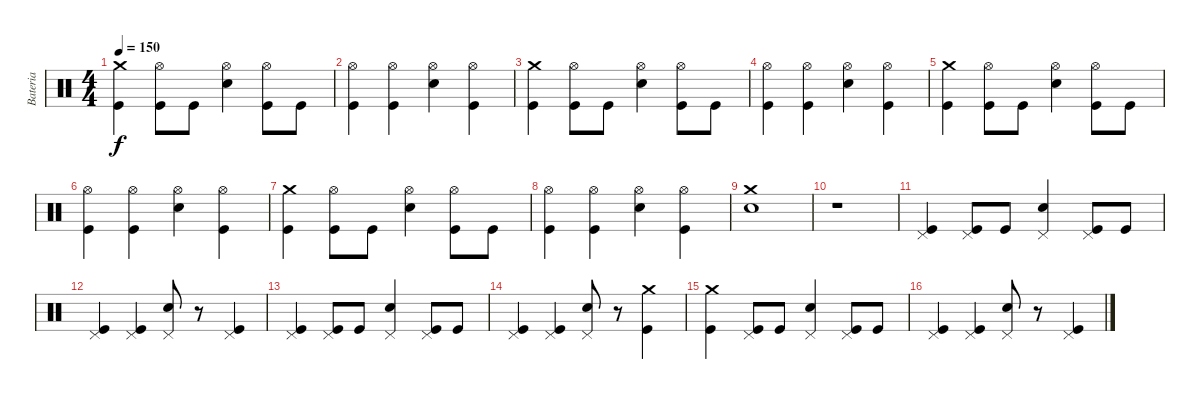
\track ("Bateria" "Bateria") {instrument percussion}
\staff {score}
\articulation defaults
\ts (4 4)
\tempo 150
\clef neutral
\ks c
("Crash medium (hit)" "Kick (hit)").4{dy f} ("Hi-Hat (open)" "Kick (hit)").8 "Kick (hit)".8 ("Hi-Hat (open)" "Snare (hit) 2").4 ("Hi-Hat (open)" "Kick (hit)").8 "Kick (hit)".8 |
("Hi-Hat (open)" "Kick (hit)").4 ("Hi-Hat (open)" "Kick (hit)").4 ("Hi-Hat (open)" "Snare (hit) 2").4 ("Hi-Hat (open)" "Kick (hit)").4 |
("Crash medium (hit)" "Kick (hit)").4 ("Hi-Hat (open)" "Kick (hit)").8 "Kick (hit)".8 ("Hi-Hat (open)" "Snare (hit) 2").4 ("Hi-Hat (open)" "Kick (hit)").8 "Kick (hit)".8 |
("Hi-Hat (open)" "Kick (hit)").4 ("Hi-Hat (open)" "Kick (hit)").4 ("Hi-Hat (open)" "Snare (hit) 2").4 ("Hi-Hat (open)" "Kick (hit)").4 |
("Crash medium (hit)" "Kick (hit)").4 ("Hi-Hat (open)" "Kick (hit)").8 "Kick (hit)".8 ("Hi-Hat (open)" "Snare (hit) 2").4 ("Hi-Hat (open)" "Kick (hit)").8 "Kick (hit)".8 |
("Hi-Hat (open)" "Kick (hit)").4 ("Hi-Hat (open)" "Kick (hit)").4 ("Hi-Hat (open)" "Snare (hit) 2").4 ("Hi-Hat (open)" "Kick (hit)").4 |
("Crash medium (hit)" "Kick (hit)").4 ("Hi-Hat (open)" "Kick (hit)").8 "Kick (hit)".8 ("Hi-Hat (open)" "Snare (hit) 2").4 ("Hi-Hat (open)" "Kick (hit)").8 "Kick (hit)".8 |
("Hi-Hat (open)" "Kick (hit)").4 ("Hi-Hat (open)" "Kick (hit)").4 ("Hi-Hat (open)" "Snare (hit) 2").4 ("Hi-Hat (open)" "Kick (hit)").4 |
("Crash medium (hit)" "Snare (hit) 2").1 |
r.1 |
("Pedal Hi-Hat (hit)" "Kick (hit)").4 ("Pedal Hi-Hat (hit)" "Kick (hit)").8 "Kick (hit)".8 ("Pedal Hi-Hat (hit)" "Snare (hit) 2").4 ("Pedal Hi-Hat (hit)" "Kick (hit)").8 "Kick (hit)".8 |
("Pedal Hi-Hat (hit)" "Kick (hit)").4 ("Pedal Hi-Hat (hit)" "Kick (hit)").4 ("Pedal Hi-Hat (hit)" "Snare (hit) 2").8 r.8 ("Pedal Hi-Hat (hit)" "Kick (hit)").4 |
("Pedal Hi-Hat (hit)" "Kick (hit)").4 ("Pedal Hi-Hat (hit)" "Kick (hit)").8 "Kick (hit)".8 ("Pedal Hi-Hat (hit)" "Snare (hit) 2").4 ("Pedal Hi-Hat (hit)" "Kick (hit)").8 "Kick (hit)".8 |
("Pedal Hi-Hat (hit)" "Kick (hit)").4 ("Pedal Hi-Hat (hit)" "Kick (hit)").4 ("Pedal Hi-Hat (hit)" "Snare (hit) 2").8 r.8 ("Crash medium (hit)" "Kick (hit)").4 |
("Crash medium (hit)" "Kick (hit)").4 ("Pedal Hi-Hat (hit)" "Kick (hit)").8 "Kick (hit)".8 ("Pedal Hi-Hat (hit)" "Snare (hit) 2").4 ("Pedal Hi-Hat (hit)" "Kick (hit)").8 "Kick (hit)".8 |
("Pedal Hi-Hat (hit)" "Kick (hit)").4 ("Pedal Hi-Hat (hit)" "Kick (hit)").4 ("Pedal Hi-Hat (hit)" "Snare (hit) 2").8 r.8 ("Pedal Hi-Hat (hit)" "Kick (hit)").4
